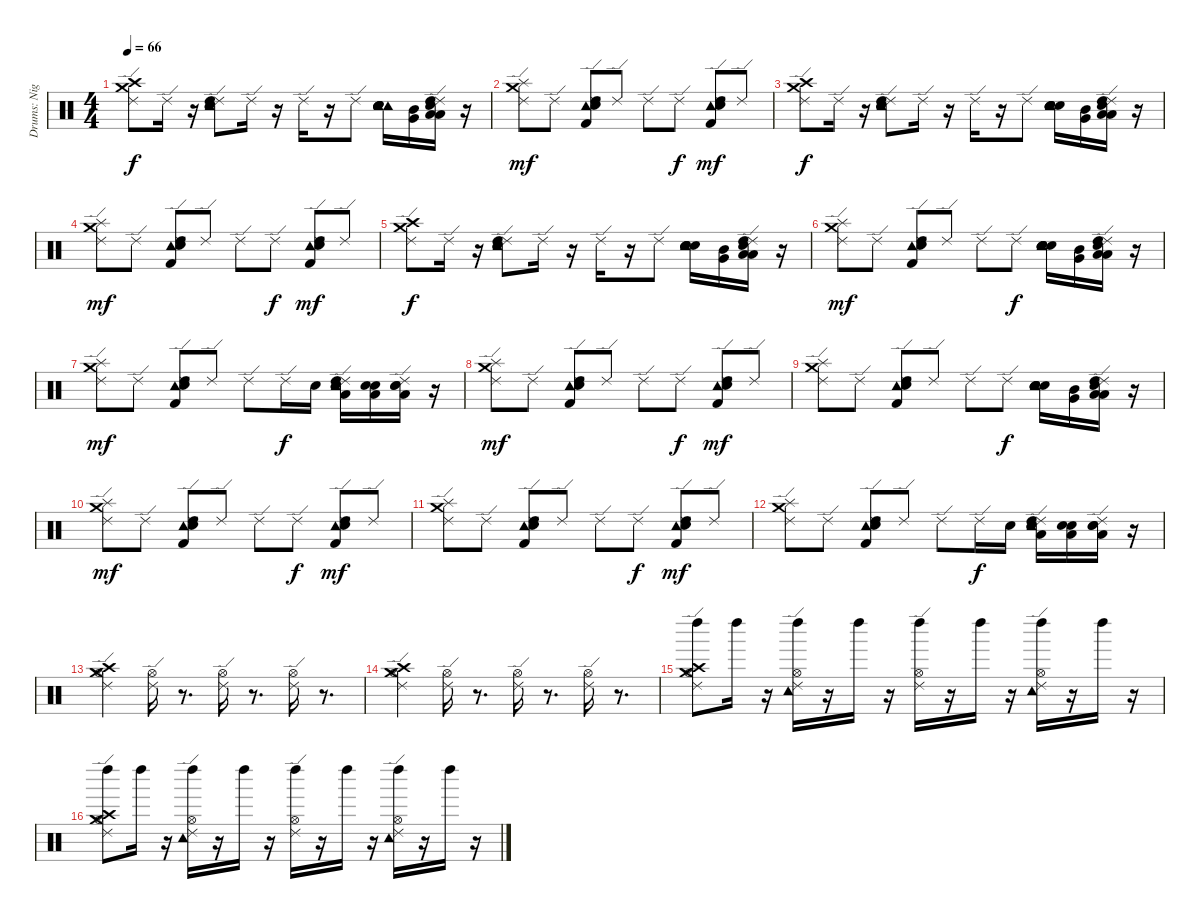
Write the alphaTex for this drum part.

\track ("Drums: Nigel Olsson" "Drums: Nig") {instrument percussion}
\staff {score}
\articulation defaults
\ts (4 4)
\tempo 66
\clef neutral
\ks c
("Ride (edge) 2" "Crash medium (hit)" "Crash high (hit)").8{dy f} "Ride (edge) 2".16 r.16 ("Tambourine (hit)" "Snare (hit) 2" "Electric Snare (hit)" "Ride (edge) 2" "High Tom (hit)").8 "Ride (edge) 2".16 r.16 "Ride (edge) 2".16 r.16 "Ride (edge) 2".8 ("Tambourine (hit)" "Snare (hit) 2" "Electric Snare (hit)" "Electric Snare (hit)" "Snare (hit) 2" "Tambourine (hit)").16 ("Very Low Tom (hit)" "Mid Tom (hit)").16 ("Low Tom (hit)" "Low Floor Tom (hit)" "Snare (hit) 2" "Ride (edge) 2" "High Tom (hit)").16 r.16 |
("Ride (edge) 2" "Crash medium (hit)" "Splash (hit)").8{dy mf} "Ride (edge) 2".8 ("Ride (edge) 2" "Tambourine (hit)" "Snare (hit) 2" "High Tom (hit)" "Kick (hit) 2").8 "Ride (edge) 2".8 "Ride (edge) 2".8 "Ride (edge) 2".8{dy f} ("Ride (edge) 2" "Tambourine (hit)" "Snare (hit) 2" "High Tom (hit)" "Kick (hit) 2").8{dy mf} "Ride (edge) 2".8 |
("Ride (edge) 2" "Crash medium (hit)" "Crash high (hit)").8{dy f} "Ride (edge) 2".16 r.16 ("Tambourine (hit)" "Snare (hit) 2" "Electric Snare (hit)" "Ride (edge) 2" "High Tom (hit)").8 "Ride (edge) 2".16 r.16 "Ride (edge) 2".16 r.16 "Ride (edge) 2".8 ("Electric Snare (hit)" "Snare (hit) 2" "Tambourine (hit)" "Electric Snare (hit)" "Snare (hit) 2" "Tambourine (hit)").16 ("Very Low Tom (hit)" "Mid Tom (hit)").16 ("Low Tom (hit)" "Low Floor Tom (hit)" "Snare (hit) 2" "Ride (edge) 2" "High Tom (hit)").16 r.16 |
("Ride (edge) 2" "Crash medium (hit)" "Splash (hit)").8{dy mf} "Ride (edge) 2".8 ("Ride (edge) 2" "Tambourine (hit)" "Snare (hit) 2" "High Tom (hit)" "Kick (hit) 2").8 "Ride (edge) 2".8 "Ride (edge) 2".8 "Ride (edge) 2".8{dy f} ("Ride (edge) 2" "Tambourine (hit)" "Snare (hit) 2" "High Tom (hit)" "Kick (hit) 2").8{dy mf} "Ride (edge) 2".8 |
("Ride (edge) 2" "Crash medium (hit)" "Crash high (hit)").8{dy f} "Ride (edge) 2".16 r.16 ("Tambourine (hit)" "Snare (hit) 2" "Electric Snare (hit)" "Ride (edge) 2" "High Tom (hit)").8 "Ride (edge) 2".16 r.16 "Ride (edge) 2".16 r.16 "Ride (edge) 2".8 ("Electric Snare (hit)" "Snare (hit) 2" "Tambourine (hit)" "Electric Snare (hit)" "Snare (hit) 2" "Tambourine (hit)").16 ("Very Low Tom (hit)" "Mid Tom (hit)").16 ("Low Tom (hit)" "Low Floor Tom (hit)" "Snare (hit) 2" "Ride (edge) 2" "High Tom (hit)").16 r.16 |
("Ride (edge) 2" "Crash medium (hit)" "Splash (hit)").8{dy mf} "Ride (edge) 2".8 ("Ride (edge) 2" "Tambourine (hit)" "Snare (hit) 2" "High Tom (hit)" "Kick (hit) 2").8 "Ride (edge) 2".8 "Ride (edge) 2".8 "Ride (edge) 2".8{dy f} ("Electric Snare (hit)" "Snare (hit) 2" "Tambourine (hit)" "Electric Snare (hit)" "Snare (hit) 2" "Tambourine (hit)").16 ("Very Low Tom (hit)" "Mid Tom (hit)").16 ("Low Tom (hit)" "Low Floor Tom (hit)" "Snare (hit) 2" "Ride (edge) 2" "High Tom (hit)").16 r.16 |
("Ride (edge) 2" "Crash medium (hit)" "Splash (hit)").8{dy mf} "Ride (edge) 2".8 ("Ride (edge) 2" "Tambourine (hit)" "Snare (hit) 2" "High Tom (hit)" "Kick (hit) 2").8 "Ride (edge) 2".8 "Ride (edge) 2".8 "Ride (edge) 2".16{dy f} "Electric Snare (hit)".16 ("Tambourine (hit)" "Snare (hit) 2" "Electric Snare (hit)" "Low Floor Tom (hit)" "Ride (edge) 2" "High Tom (hit)").16 ("Electric Snare (hit)" "Snare (hit) 2" "Low Floor Tom (hit)").16 ("Electric Snare (hit)" "Snare (hit) 2" "Low Floor Tom (hit)" "Ride (edge) 2").16 r.16 |
("Ride (edge) 2" "Crash medium (hit)" "Splash (hit)").8{dy mf} "Ride (edge) 2".8 ("Ride (edge) 2" "Tambourine (hit)" "Snare (hit) 2" "High Tom (hit)" "Kick (hit) 2").8 "Ride (edge) 2".8 "Ride (edge) 2".8 "Ride (edge) 2".8{dy f} ("Ride (edge) 2" "Tambourine (hit)" "Snare (hit) 2" "High Tom (hit)" "Kick (hit) 2").8{dy mf} "Ride (edge) 2".8 |
("Ride (edge) 2" "Crash medium (hit)" "Splash (hit)").8 "Ride (edge) 2".8 ("Ride (edge) 2" "Tambourine (hit)" "Snare (hit) 2" "High Tom (hit)" "Kick (hit) 2").8 "Ride (edge) 2".8 "Ride (edge) 2".8 "Ride (edge) 2".8{dy f} ("Electric Snare (hit)" "Snare (hit) 2" "Tambourine (hit)" "Electric Snare (hit)" "Snare (hit) 2" "Tambourine (hit)").16 ("Very Low Tom (hit)" "Mid Tom (hit)").16 ("Low Tom (hit)" "Low Floor Tom (hit)" "Snare (hit) 2" "Ride (edge) 2" "High Tom (hit)").16 r.16 |
("Ride (edge) 2" "Crash medium (hit)" "Splash (hit)").8{dy mf} "Ride (edge) 2".8 ("Ride (edge) 2" "Tambourine (hit)" "Snare (hit) 2" "High Tom (hit)" "Kick (hit) 2").8 "Ride (edge) 2".8 "Ride (edge) 2".8 "Ride (edge) 2".8{dy f} ("Ride (edge) 2" "Tambourine (hit)" "Snare (hit) 2" "High Tom (hit)" "Kick (hit) 2").8{dy mf} "Ride (edge) 2".8 |
("Ride (edge) 2" "Crash medium (hit)" "Splash (hit)").8 "Ride (edge) 2".8 ("Ride (edge) 2" "Tambourine (hit)" "Snare (hit) 2" "High Tom (hit)" "Kick (hit) 2").8 "Ride (edge) 2".8 "Ride (edge) 2".8 "Ride (edge) 2".8{dy f} ("Ride (edge) 2" "Tambourine (hit)" "Snare (hit) 2" "High Tom (hit)" "Kick (hit) 2").8{dy mf} "Ride (edge) 2".8 |
("Ride (edge) 2" "Crash medium (hit)" "Splash (hit)").8 "Ride (edge) 2".8 ("Ride (edge) 2" "Tambourine (hit)" "Snare (hit) 2" "High Tom (hit)" "Kick (hit) 2").8 "Ride (edge) 2".8 "Ride (edge) 2".8 "Ride (edge) 2".16{dy f} "Electric Snare (hit)".16 ("Tambourine (hit)" "Snare (hit) 2" "Electric Snare (hit)" "Low Floor Tom (hit)" "Ride (edge) 2" "High Tom (hit)").16 ("Electric Snare (hit)" "Snare (hit) 2" "Low Floor Tom (hit)").16 ("Electric Snare (hit)" "Snare (hit) 2" "Low Floor Tom (hit)" "Ride (edge) 2").16 r.16 |
("Hi-Hat (open)" "Ride (edge) 2" "Crash medium (hit)" "Crash high (hit)").4 ("Hi-Hat (open)" "Ride (edge) 2").16 r.8{d} ("Hi-Hat (open)" "Ride (edge) 2").16 r.8{d} ("Hi-Hat (open)" "Ride (edge) 2").16 r.8{d} |
("Hi-Hat (open)" "Ride (edge) 2" "Crash medium (hit)" "Crash high (hit)").4 ("Hi-Hat (open)" "Ride (edge) 2").16 r.8{d} ("Hi-Hat (open)" "Ride (edge) 2").16 r.8{d} ("Hi-Hat (open)" "Ride (edge) 2").16 r.8{d} |
("Hi-Hat (open)" "Ride (edge) 2" "Crash medium (hit)" "Crash high (hit)" "Left Maraca (hit)").8 "Left Maraca (hit)".16 r.16 ("Hi-Hat (open)" "Ride (edge) 2" "Tambourine (hit)" "Left Maraca (hit)").16 r.16 "Left Maraca (hit)".16 r.16 ("Hi-Hat (open)" "Ride (edge) 2" "Left Maraca (hit)").16 r.16 "Left Maraca (hit)".16 r.16 ("Hi-Hat (open)" "Tambourine (hit)" "Ride (edge) 2" "Left Maraca (hit)").16 r.16 "Left Maraca (hit)".16 r.16 |
("Hi-Hat (open)" "Crash medium (hit)" "Ride (edge) 2" "Crash high (hit)" "Left Maraca (hit)").8 "Left Maraca (hit)".16 r.16 ("Hi-Hat (open)" "Tambourine (hit)" "Ride (edge) 2" "Left Maraca (hit)").16 r.16 "Left Maraca (hit)".16 r.16 ("Hi-Hat (open)" "Ride (edge) 2" "Left Maraca (hit)").16 r.16 "Left Maraca (hit)".16 r.16 ("Hi-Hat (open)" "Tambourine (hit)" "Ride (edge) 2" "Left Maraca (hit)").16 r.16 "Left Maraca (hit)".16 r.16
